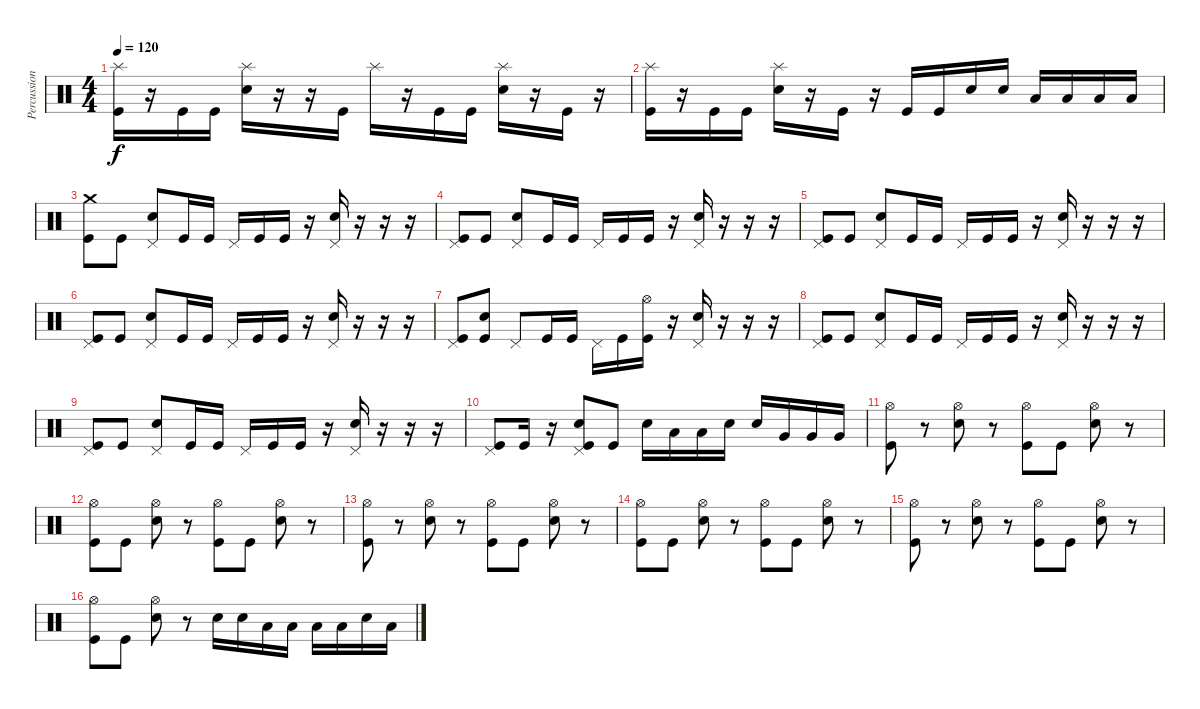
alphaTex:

\track ("Percussion" "Percussion") {instrument percussion}
\staff {score}
\articulation defaults
\ts (4 4)
\tempo 120
\clef neutral
\ks c
("Splash (hit)" "Kick (hit)").16{dy f} r.16 "Kick (hit)".16 "Kick (hit)".16 ("Splash (hit)" "Electric Snare (hit)").16 r.16 r.16 "Kick (hit)".16 "Splash (hit)".16 r.16 "Kick (hit)".16 "Kick (hit)".16 ("Splash (hit)" "Electric Snare (hit)").16 r.16 "Kick (hit)".16 r.16 |
("Splash (hit)" "Kick (hit)").16 r.16 "Kick (hit)".16 "Kick (hit)".16 ("Splash (hit)" "Electric Snare (hit)").16 r.16 "Kick (hit)".16 r.16 "Kick (hit)".16 "Kick (hit)".16 "Electric Snare (hit)".16 "Electric Snare (hit)".16 "Low Tom (hit)".16 "Low Tom (hit)".16 "Low Tom (hit)".16 "Low Tom (hit)".16 |
("Crash medium (hit)" "Kick (hit)").8 "Kick (hit)".8 ("Pedal Hi-Hat (hit)" "Electric Snare (hit)").8 "Kick (hit)".16 "Kick (hit)".16 "Pedal Hi-Hat (hit)".16 "Kick (hit)".16 "Kick (hit)".16 r.16 ("Pedal Hi-Hat (hit)" "Electric Snare (hit)").16 r.16 r.16 r.16 |
("Pedal Hi-Hat (hit)" "Kick (hit)").8 "Kick (hit)".8 ("Pedal Hi-Hat (hit)" "Electric Snare (hit)").8 "Kick (hit)".16 "Kick (hit)".16 "Pedal Hi-Hat (hit)".16 "Kick (hit)".16 "Kick (hit)".16 r.16 ("Pedal Hi-Hat (hit)" "Electric Snare (hit)").16 r.16 r.16 r.16 |
("Pedal Hi-Hat (hit)" "Kick (hit)").8 "Kick (hit)".8 ("Pedal Hi-Hat (hit)" "Electric Snare (hit)").8 "Kick (hit)".16 "Kick (hit)".16 "Pedal Hi-Hat (hit)".16 "Kick (hit)".16 "Kick (hit)".16 r.16 ("Pedal Hi-Hat (hit)" "Electric Snare (hit)").16 r.16 r.16 r.16 |
("Pedal Hi-Hat (hit)" "Kick (hit)").8 "Kick (hit)".8 ("Pedal Hi-Hat (hit)" "Electric Snare (hit)").8 "Kick (hit)".16 "Kick (hit)".16 "Pedal Hi-Hat (hit)".16 "Kick (hit)".16 "Kick (hit)".16 r.16 ("Pedal Hi-Hat (hit)" "Electric Snare (hit)").16 r.16 r.16 r.16 |
("Pedal Hi-Hat (hit)" "Kick (hit)").8 ("Electric Snare (hit)" "Kick (hit)").8 "Pedal Hi-Hat (hit)".8 "Kick (hit)".16 "Kick (hit)".16 "Pedal Hi-Hat (hit)".16 "Kick (hit)".16 ("Hi-Hat (open)" "Kick (hit)").16 r.16 ("Pedal Hi-Hat (hit)" "Electric Snare (hit)").16 r.16 r.16 r.16 |
("Pedal Hi-Hat (hit)" "Kick (hit)").8 "Kick (hit)".8 ("Pedal Hi-Hat (hit)" "Electric Snare (hit)").8 "Kick (hit)".16 "Kick (hit)".16 "Pedal Hi-Hat (hit)".16 "Kick (hit)".16 "Kick (hit)".16 r.16 ("Pedal Hi-Hat (hit)" "Electric Snare (hit)").16 r.16 r.16 r.16 |
("Pedal Hi-Hat (hit)" "Kick (hit)").8 "Kick (hit)".8 ("Pedal Hi-Hat (hit)" "Electric Snare (hit)").8 "Kick (hit)".16 "Kick (hit)".16 "Pedal Hi-Hat (hit)".16 "Kick (hit)".16 "Kick (hit)".16 r.16 ("Pedal Hi-Hat (hit)" "Electric Snare (hit)").16 r.16 r.16 r.16 |
("Pedal Hi-Hat (hit)" "Kick (hit)").8 "Kick (hit)".16 r.16 ("Pedal Hi-Hat (hit)" "Electric Snare (hit)" "Kick (hit)").8 "Kick (hit)".8 "Electric Snare (hit)".16 "Low Tom (hit)".16 "Low Tom (hit)".16 "Electric Snare (hit)".16 "Electric Snare (hit)".16 "Very Low Tom (hit)".16 "Very Low Tom (hit)".16 "Very Low Tom (hit)".16 |
("Hi-Hat (open)" "Kick (hit)").8 r.8 ("Hi-Hat (open)" "Electric Snare (hit)").8 r.8 ("Hi-Hat (open)" "Kick (hit)").8 "Kick (hit)".8 ("Hi-Hat (open)" "Electric Snare (hit)").8 r.8 |
("Hi-Hat (open)" "Kick (hit)").8 "Kick (hit)".8 ("Hi-Hat (open)" "Electric Snare (hit)").8 r.8 ("Hi-Hat (open)" "Kick (hit)").8 "Kick (hit)".8 ("Hi-Hat (open)" "Electric Snare (hit)").8 r.8 |
("Hi-Hat (open)" "Kick (hit)").8 r.8 ("Hi-Hat (open)" "Electric Snare (hit)").8 r.8 ("Hi-Hat (open)" "Kick (hit)").8 "Kick (hit)".8 ("Hi-Hat (open)" "Electric Snare (hit)").8 r.8 |
("Hi-Hat (open)" "Kick (hit)").8 "Kick (hit)".8 ("Hi-Hat (open)" "Electric Snare (hit)").8 r.8 ("Hi-Hat (open)" "Kick (hit)").8 "Kick (hit)".8 ("Hi-Hat (open)" "Electric Snare (hit)").8 r.8 |
("Hi-Hat (open)" "Kick (hit)").8 r.8 ("Hi-Hat (open)" "Electric Snare (hit)").8 r.8 ("Hi-Hat (open)" "Kick (hit)").8 "Kick (hit)".8 ("Hi-Hat (open)" "Electric Snare (hit)").8 r.8 |
("Hi-Hat (open)" "Kick (hit)").8 "Kick (hit)".8 ("Hi-Hat (open)" "Electric Snare (hit)").8 r.8 "Electric Snare (hit)".16 "Electric Snare (hit)".16 "Low Tom (hit)".16 "Low Tom (hit)".16 "Low Tom (hit)".16 "Low Tom (hit)".16 "Electric Snare (hit)".16 "Low Tom (hit)".16
